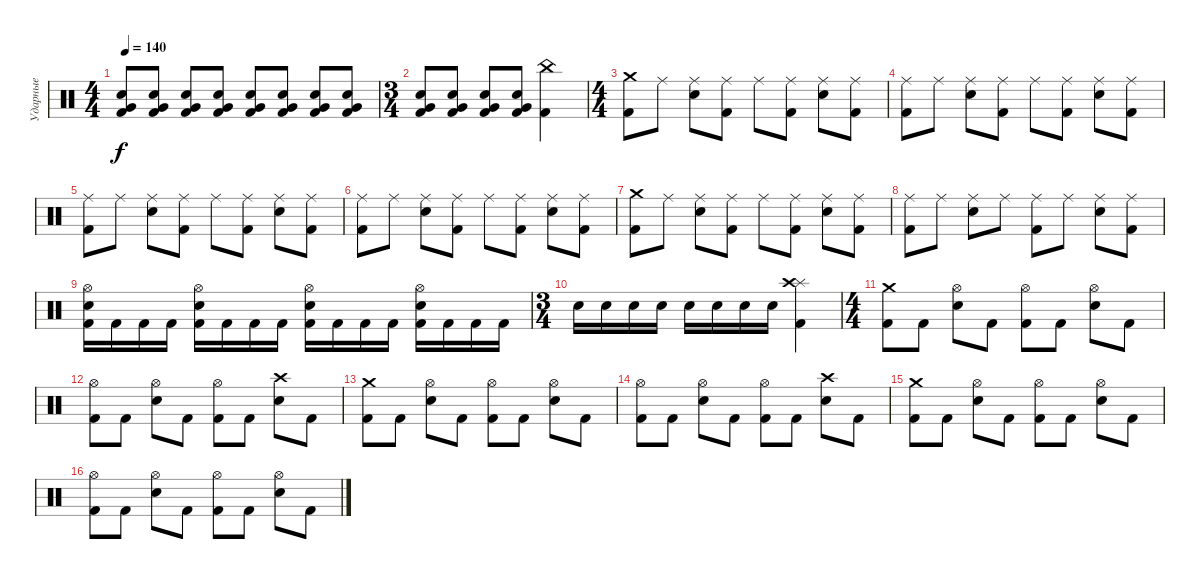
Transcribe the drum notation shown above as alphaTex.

\track ("Ударные" "Ударные") {instrument percussion}
\staff {score}
\articulation defaults
\ts (4 4)
\tempo 140
\clef neutral
\ks c
("Electric Snare (hit)" "Very Low Tom (hit)" "Kick (hit) 2").8{dy f} ("Electric Snare (hit)" "Very Low Tom (hit)" "Kick (hit) 2").8 ("Electric Snare (hit)" "Very Low Tom (hit)" "Kick (hit) 2").8 ("Electric Snare (hit)" "Very Low Tom (hit)" "Kick (hit) 2").8 ("Electric Snare (hit)" "Very Low Tom (hit)" "Kick (hit) 2").8 ("Electric Snare (hit)" "Very Low Tom (hit)" "Kick (hit) 2").8 ("Electric Snare (hit)" "Very Low Tom (hit)" "Kick (hit) 2").8 ("Electric Snare (hit)" "Very Low Tom (hit)" "Kick (hit) 2").8 |
\ts (3 4)
("Electric Snare (hit)" "Very Low Tom (hit)" "Kick (hit) 2").8 ("Electric Snare (hit)" "Very Low Tom (hit)" "Kick (hit) 2").8 ("Electric Snare (hit)" "Very Low Tom (hit)" "Kick (hit) 2").8 ("Electric Snare (hit)" "Very Low Tom (hit)" "Kick (hit) 2").8 ("China (hit)" "Kick (hit) 2").4 |
\ts (4 4)
("Crash medium (hit)" "Kick (hit) 2").8 "Ride (middle)".8 ("Ride (middle)" "Electric Snare (hit)").8 ("Ride (middle)" "Kick (hit) 2").8 "Ride (middle)".8 ("Ride (middle)" "Kick (hit) 2").8 ("Ride (middle)" "Electric Snare (hit)").8 ("Ride (middle)" "Kick (hit) 2").8 |
("Ride (middle)" "Kick (hit) 2").8 "Ride (middle)".8 ("Ride (middle)" "Electric Snare (hit)").8 ("Ride (middle)" "Kick (hit) 2").8 "Ride (middle)".8 ("Ride (middle)" "Kick (hit) 2").8 ("Ride (middle)" "Electric Snare (hit)").8 ("Ride (middle)" "Kick (hit) 2").8 |
("Ride (middle)" "Kick (hit) 2").8 "Ride (middle)".8 ("Ride (middle)" "Electric Snare (hit)").8 ("Ride (middle)" "Kick (hit) 2").8 "Ride (middle)".8 ("Ride (middle)" "Kick (hit) 2").8 ("Ride (middle)" "Electric Snare (hit)").8 ("Ride (middle)" "Kick (hit) 2").8 |
("Ride (middle)" "Kick (hit) 2").8 "Ride (middle)".8 ("Ride (middle)" "Electric Snare (hit)").8 ("Ride (middle)" "Kick (hit) 2").8 "Ride (middle)".8 ("Ride (middle)" "Kick (hit) 2").8 ("Ride (middle)" "Electric Snare (hit)").8 ("Ride (middle)" "Kick (hit) 2").8 |
("Crash medium (hit)" "Kick (hit) 2").8 "Ride (middle)".8 ("Ride (middle)" "Electric Snare (hit)").8 ("Ride (middle)" "Kick (hit) 2").8 "Ride (middle)".8 ("Ride (middle)" "Kick (hit) 2").8 ("Ride (middle)" "Electric Snare (hit)").8 ("Ride (middle)" "Kick (hit) 2").8 |
("Ride (middle)" "Kick (hit) 2").8 "Ride (middle)".8 ("Ride (middle)" "Electric Snare (hit)").8 "Ride (middle)".8 ("Ride (middle)" "Kick (hit) 2").8 "Ride (middle)".8 ("Ride (middle)" "Electric Snare (hit)").8 ("Ride (middle)" "Kick (hit) 2").8 |
("Hi-Hat (open)" "Electric Snare (hit)" "Kick (hit) 2").16 "Kick (hit) 2".16 "Kick (hit) 2".16 "Kick (hit) 2".16 ("Hi-Hat (open)" "Electric Snare (hit)" "Kick (hit) 2").16 "Kick (hit) 2".16 "Kick (hit) 2".16 "Kick (hit) 2".16 ("Hi-Hat (open)" "Electric Snare (hit)" "Kick (hit) 2").16 "Kick (hit) 2".16 "Kick (hit) 2".16 "Kick (hit) 2".16 ("Hi-Hat (open)" "Electric Snare (hit)" "Kick (hit) 2").16 "Kick (hit) 2".16 "Kick (hit) 2".16 "Kick (hit) 2".16 |
\ts (3 4)
"Electric Snare (hit)".16 "Electric Snare (hit)".16 "Electric Snare (hit)".16 "Electric Snare (hit)".16 "Electric Snare (hit)".16 "Electric Snare (hit)".16 "Electric Snare (hit)".16 "Electric Snare (hit)".16 ("Splash (hit)" "Crash high (hit)" "Kick (hit) 2").4 |
\ts (4 4)
("Crash medium (hit)" "Kick (hit) 2").8 "Kick (hit) 2".8 ("Hi-Hat (open)" "Electric Snare (hit)").8 "Kick (hit) 2".8 ("Hi-Hat (open)" "Kick (hit) 2").8 "Kick (hit) 2".8 ("Hi-Hat (open)" "Electric Snare (hit)").8 "Kick (hit) 2".8 |
("Hi-Hat (open)" "Kick (hit) 2").8 "Kick (hit) 2".8 ("Hi-Hat (open)" "Electric Snare (hit)").8 "Kick (hit) 2".8 ("Hi-Hat (open)" "Kick (hit) 2").8 "Kick (hit) 2".8 ("Crash high (hit)" "Electric Snare (hit)").8 "Kick (hit) 2".8 |
("Crash medium (hit)" "Kick (hit) 2").8 "Kick (hit) 2".8 ("Hi-Hat (open)" "Electric Snare (hit)").8 "Kick (hit) 2".8 ("Hi-Hat (open)" "Kick (hit) 2").8 "Kick (hit) 2".8 ("Hi-Hat (open)" "Electric Snare (hit)").8 "Kick (hit) 2".8 |
("Hi-Hat (open)" "Kick (hit) 2").8 "Kick (hit) 2".8 ("Hi-Hat (open)" "Electric Snare (hit)").8 "Kick (hit) 2".8 ("Hi-Hat (open)" "Kick (hit) 2").8 "Kick (hit) 2".8 ("Crash high (hit)" "Electric Snare (hit)").8 "Kick (hit) 2".8 |
("Crash medium (hit)" "Kick (hit) 2").8 "Kick (hit) 2".8 ("Hi-Hat (open)" "Electric Snare (hit)").8 "Kick (hit) 2".8 ("Hi-Hat (open)" "Kick (hit) 2").8 "Kick (hit) 2".8 ("Hi-Hat (open)" "Electric Snare (hit)").8 "Kick (hit) 2".8 |
("Hi-Hat (open)" "Kick (hit) 2").8 "Kick (hit) 2".8 ("Hi-Hat (open)" "Electric Snare (hit)").8 "Kick (hit) 2".8 ("Hi-Hat (open)" "Kick (hit) 2").8 "Kick (hit) 2".8 ("Hi-Hat (open)" "Electric Snare (hit)").8 "Kick (hit) 2".8
